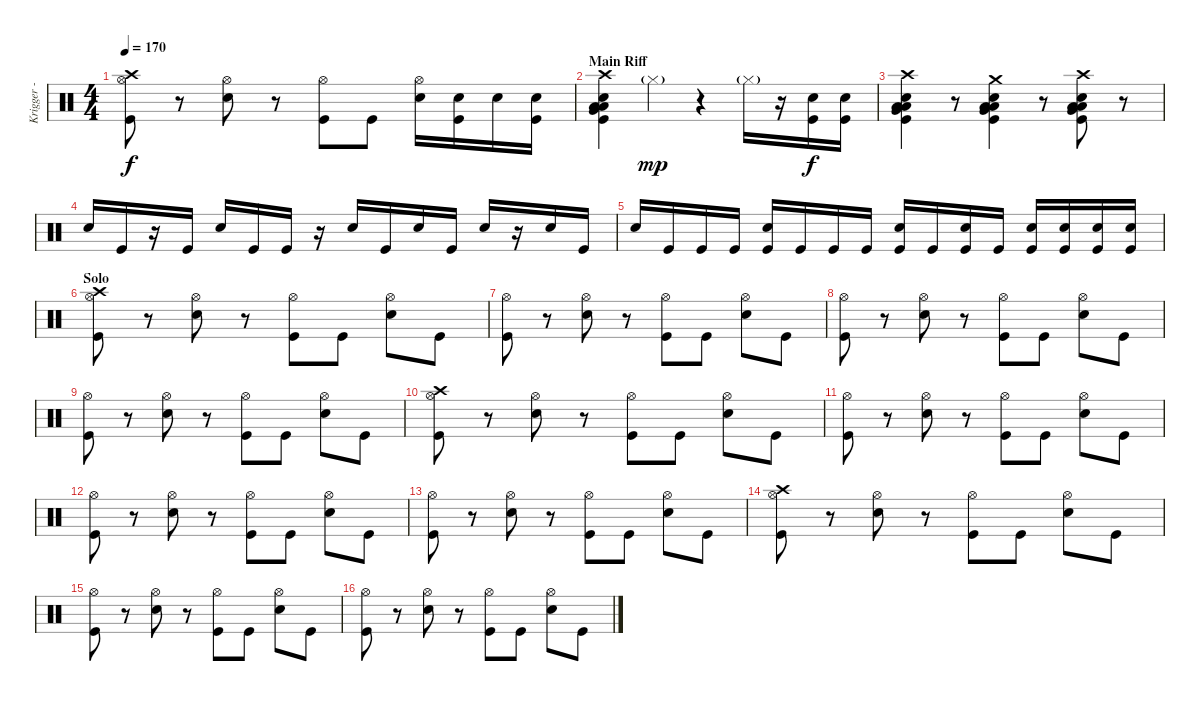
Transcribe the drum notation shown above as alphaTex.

\track ("Krigger - Drums" "Krigger - ") {instrument percussion}
\staff {score}
\articulation defaults
\ts (4 4)
\tempo 170
\clef neutral
\ks c
("Hi-Hat (open)" "Crash high (hit)" "Kick (hit)").8{dy f} r.8 ("Hi-Hat (open)" "Snare (hit) 2").8 r.8 ("Hi-Hat (open)" "Kick (hit)").8 "Kick (hit)".8 ("Hi-Hat (open)" "Snare (hit) 2").16 ("Snare (hit) 2" "Kick (hit)").16 "Snare (hit) 2".16 ("Snare (hit) 2" "Kick (hit)").16 |
\section ("" "Main Riff")
("Kick (hit)" "Snare (hit) 2" "Crash high (hit)" "Low Tom (hit)" "Very Low Tom (hit)" "Low Floor Tom (hit)").4 "Hi-Hat (closed)"{g}.4{dy mp} r.4 "Hi-Hat (closed)"{g}.16 r.16 ("Kick (hit)" "Snare (hit) 2").16{dy f} ("Kick (hit)" "Snare (hit) 2").16 |
("Kick (hit)" "Snare (hit) 2" "Crash high (hit)" "Low Floor Tom (hit)" "Low Tom (hit)" "Very Low Tom (hit)").4 r.8 ("Kick (hit)" "Snare (hit) 2" "Crash medium (hit)" "Low Floor Tom (hit)" "Low Tom (hit)" "Very Low Tom (hit)").4 r.8 ("Kick (hit)" "Snare (hit) 2" "Crash high (hit)" "Low Floor Tom (hit)" "Low Tom (hit)" "Very Low Tom (hit)").8 r.8 |
"Snare (hit) 2".16 "Kick (hit)".16 r.16 "Kick (hit)".16 "Snare (hit) 2".16 "Kick (hit)".16 "Kick (hit)".16 r.16 "Snare (hit) 2".16 "Kick (hit)".16 "Snare (hit) 2".16 "Kick (hit)".16 "Snare (hit) 2".16 r.16 "Snare (hit) 2".16 "Kick (hit)".16 |
"Snare (hit) 2".16 "Kick (hit)".16 "Kick (hit)".16 "Kick (hit)".16 ("Snare (hit) 2" "Kick (hit)").16 "Kick (hit)".16 "Kick (hit)".16 "Kick (hit)".16 ("Snare (hit) 2" "Kick (hit)").16 "Kick (hit)".16 ("Snare (hit) 2" "Kick (hit)").16 "Kick (hit)".16 ("Snare (hit) 2" "Kick (hit)").16 ("Snare (hit) 2" "Kick (hit)").16 ("Snare (hit) 2" "Kick (hit)").16 ("Snare (hit) 2" "Kick (hit)").16 |
\section ("" "Solo")
("Hi-Hat (open)" "Crash high (hit)" "Kick (hit)").8 r.8 ("Hi-Hat (open)" "Snare (hit) 2").8 r.8 ("Hi-Hat (open)" "Kick (hit)").8 "Kick (hit)".8 ("Hi-Hat (open)" "Snare (hit) 2").8 "Kick (hit)".8 |
("Hi-Hat (open)" "Kick (hit)").8 r.8 ("Hi-Hat (open)" "Snare (hit) 2").8 r.8 ("Hi-Hat (open)" "Kick (hit)").8 "Kick (hit)".8 ("Hi-Hat (open)" "Snare (hit) 2").8 "Kick (hit)".8 |
("Hi-Hat (open)" "Kick (hit)").8 r.8 ("Hi-Hat (open)" "Snare (hit) 2").8 r.8 ("Hi-Hat (open)" "Kick (hit)").8 "Kick (hit)".8 ("Hi-Hat (open)" "Snare (hit) 2").8 "Kick (hit)".8 |
("Hi-Hat (open)" "Kick (hit)").8 r.8 ("Hi-Hat (open)" "Snare (hit) 2").8 r.8 ("Hi-Hat (open)" "Kick (hit)").8 "Kick (hit)".8 ("Hi-Hat (open)" "Snare (hit) 2").8 "Kick (hit)".8 |
("Hi-Hat (open)" "Crash high (hit)" "Kick (hit)").8 r.8 ("Hi-Hat (open)" "Snare (hit) 2").8 r.8 ("Hi-Hat (open)" "Kick (hit)").8 "Kick (hit)".8 ("Hi-Hat (open)" "Snare (hit) 2").8 "Kick (hit)".8 |
("Hi-Hat (open)" "Kick (hit)").8 r.8 ("Hi-Hat (open)" "Snare (hit) 2").8 r.8 ("Hi-Hat (open)" "Kick (hit)").8 "Kick (hit)".8 ("Hi-Hat (open)" "Snare (hit) 2").8 "Kick (hit)".8 |
("Hi-Hat (open)" "Kick (hit)").8 r.8 ("Hi-Hat (open)" "Snare (hit) 2").8 r.8 ("Hi-Hat (open)" "Kick (hit)").8 "Kick (hit)".8 ("Hi-Hat (open)" "Snare (hit) 2").8 "Kick (hit)".8 |
("Hi-Hat (open)" "Kick (hit)").8 r.8 ("Hi-Hat (open)" "Snare (hit) 2").8 r.8 ("Hi-Hat (open)" "Kick (hit)").8 "Kick (hit)".8 ("Hi-Hat (open)" "Snare (hit) 2").8 "Kick (hit)".8 |
("Hi-Hat (open)" "Crash high (hit)" "Kick (hit)").8 r.8 ("Hi-Hat (open)" "Snare (hit) 2").8 r.8 ("Hi-Hat (open)" "Kick (hit)").8 "Kick (hit)".8 ("Hi-Hat (open)" "Snare (hit) 2").8 "Kick (hit)".8 |
("Hi-Hat (open)" "Kick (hit)").8 r.8 ("Hi-Hat (open)" "Snare (hit) 2").8 r.8 ("Hi-Hat (open)" "Kick (hit)").8 "Kick (hit)".8 ("Hi-Hat (open)" "Snare (hit) 2").8 "Kick (hit)".8 |
("Hi-Hat (open)" "Kick (hit)").8 r.8 ("Hi-Hat (open)" "Snare (hit) 2").8 r.8 ("Hi-Hat (open)" "Kick (hit)").8 "Kick (hit)".8 ("Hi-Hat (open)" "Snare (hit) 2").8 "Kick (hit)".8
